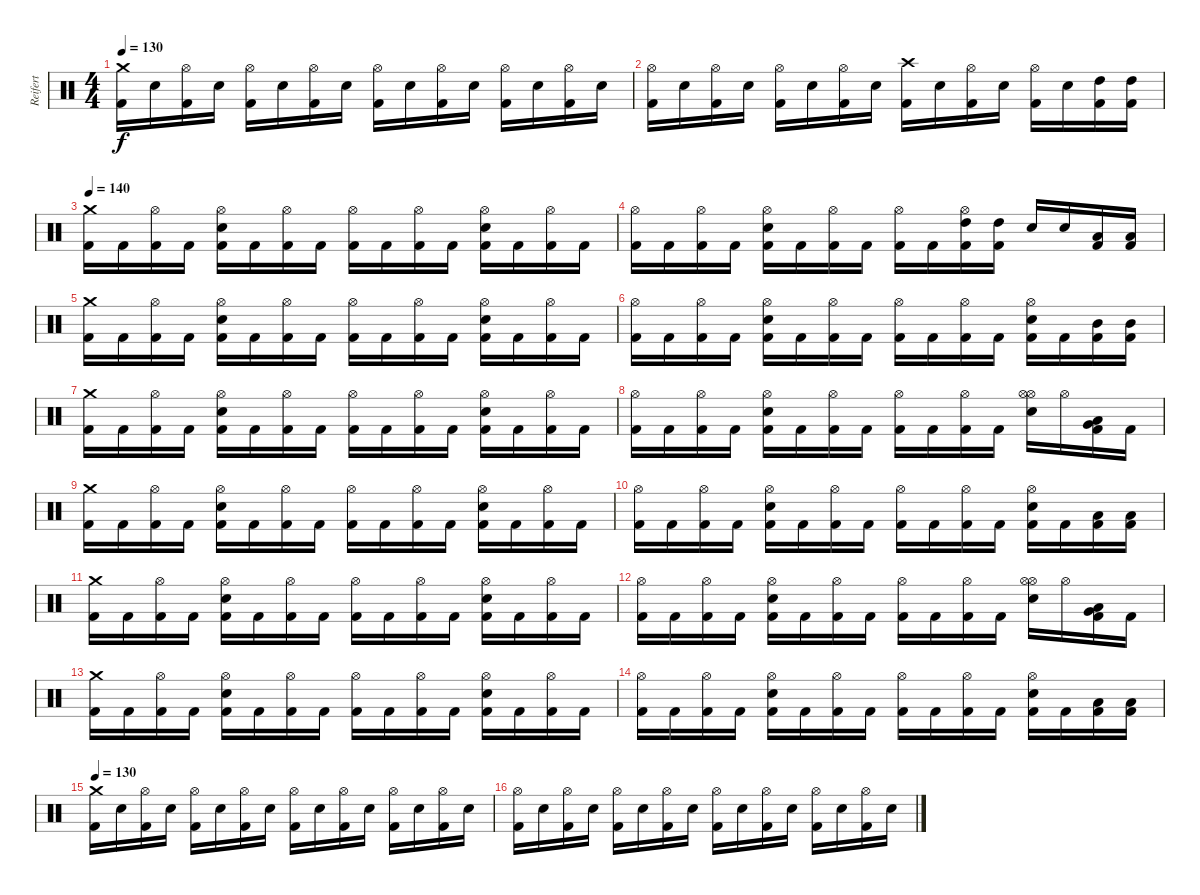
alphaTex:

\track ("Reifert" "Reifert") {instrument percussion}
\staff {score}
\articulation defaults
\ts (4 4)
\tempo 130
\clef neutral
\ks c
("Crash medium (hit)" "Kick (hit) 2").16{dy f} "Electric Snare (hit)".16 ("Hi-Hat (open)" "Kick (hit) 2").16 "Electric Snare (hit)".16 ("Hi-Hat (open)" "Kick (hit) 2").16 "Electric Snare (hit)".16 ("Hi-Hat (open)" "Kick (hit) 2").16 "Electric Snare (hit)".16 ("Hi-Hat (open)" "Kick (hit) 2").16 "Electric Snare (hit)".16 ("Hi-Hat (open)" "Kick (hit) 2").16 "Electric Snare (hit)".16 ("Hi-Hat (open)" "Kick (hit) 2").16 "Electric Snare (hit)".16 ("Hi-Hat (open)" "Kick (hit) 2").16 "Electric Snare (hit)".16 |
("Hi-Hat (open)" "Kick (hit) 2").16 "Electric Snare (hit)".16 ("Hi-Hat (open)" "Kick (hit) 2").16 "Electric Snare (hit)".16 ("Hi-Hat (open)" "Kick (hit) 2").16 "Electric Snare (hit)".16 ("Hi-Hat (open)" "Kick (hit) 2").16 "Electric Snare (hit)".16 ("Crash high (hit)" "Kick (hit) 2").16 "Electric Snare (hit)".16 ("Hi-Hat (open)" "Kick (hit) 2").16 "Electric Snare (hit)".16 ("Hi-Hat (open)" "Kick (hit) 2").16 "Electric Snare (hit)".16 ("High Tom (hit)" "Kick (hit) 2").16 ("High Tom (hit)" "Kick (hit) 2").16 |
\tempo 140
("Crash medium (hit)" "Kick (hit) 2").16 "Kick (hit) 2".16 ("Hi-Hat (open)" "Kick (hit) 2").16 "Kick (hit) 2".16 ("Hi-Hat (open)" "Electric Snare (hit)" "Kick (hit) 2").16 "Kick (hit) 2".16 ("Hi-Hat (open)" "Kick (hit) 2").16 "Kick (hit) 2".16 ("Hi-Hat (open)" "Kick (hit) 2").16 "Kick (hit) 2".16 ("Hi-Hat (open)" "Kick (hit) 2").16 "Kick (hit) 2".16 ("Hi-Hat (open)" "Electric Snare (hit)" "Kick (hit) 2").16 "Kick (hit) 2".16 ("Hi-Hat (open)" "Kick (hit) 2").16 "Kick (hit) 2".16 |
("Hi-Hat (open)" "Kick (hit) 2").16 "Kick (hit) 2".16 ("Hi-Hat (open)" "Kick (hit) 2").16 "Kick (hit) 2".16 ("Hi-Hat (open)" "Electric Snare (hit)" "Kick (hit) 2").16 "Kick (hit) 2".16 ("Hi-Hat (open)" "Kick (hit) 2").16 "Kick (hit) 2".16 ("Hi-Hat (open)" "Kick (hit) 2").16 "Kick (hit) 2".16 ("Hi-Hat (open)" "High Tom (hit)" "Kick (hit) 2").16 ("High Tom (hit)" "Kick (hit) 2").16 "Electric Snare (hit)".16 "Electric Snare (hit)".16 ("Low Tom (hit)" "Kick (hit) 2").16 ("Low Tom (hit)" "Kick (hit) 2").16 |
("Crash medium (hit)" "Kick (hit) 2").16 "Kick (hit) 2".16 ("Hi-Hat (open)" "Kick (hit) 2").16 "Kick (hit) 2".16 ("Hi-Hat (open)" "Electric Snare (hit)" "Kick (hit) 2").16 "Kick (hit) 2".16 ("Hi-Hat (open)" "Kick (hit) 2").16 "Kick (hit) 2".16 ("Hi-Hat (open)" "Kick (hit) 2").16 "Kick (hit) 2".16 ("Hi-Hat (open)" "Kick (hit) 2").16 "Kick (hit) 2".16 ("Hi-Hat (open)" "Electric Snare (hit)" "Kick (hit) 2").16 "Kick (hit) 2".16 ("Hi-Hat (open)" "Kick (hit) 2").16 "Kick (hit) 2".16 |
("Hi-Hat (open)" "Kick (hit) 2").16 "Kick (hit) 2".16 ("Hi-Hat (open)" "Kick (hit) 2").16 "Kick (hit) 2".16 ("Hi-Hat (open)" "Electric Snare (hit)" "Kick (hit) 2").16 "Kick (hit) 2".16 ("Hi-Hat (open)" "Kick (hit) 2").16 "Kick (hit) 2".16 ("Hi-Hat (open)" "Kick (hit) 2").16 "Kick (hit) 2".16 ("Hi-Hat (open)" "Kick (hit) 2").16 "Kick (hit) 2".16 ("Hi-Hat (open)" "Electric Snare (hit)" "Kick (hit) 2").16 "Kick (hit) 2".16 ("Mid Tom (hit)" "Kick (hit) 2").16 ("Mid Tom (hit)" "Kick (hit) 2").16 |
("Crash medium (hit)" "Kick (hit) 2").16 "Kick (hit) 2".16 ("Hi-Hat (open)" "Kick (hit) 2").16 "Kick (hit) 2".16 ("Hi-Hat (open)" "Electric Snare (hit)" "Kick (hit) 2").16 "Kick (hit) 2".16 ("Hi-Hat (open)" "Kick (hit) 2").16 "Kick (hit) 2".16 ("Hi-Hat (open)" "Kick (hit) 2").16 "Kick (hit) 2".16 ("Hi-Hat (open)" "Kick (hit) 2").16 "Kick (hit) 2".16 ("Hi-Hat (open)" "Electric Snare (hit)" "Kick (hit) 2").16 "Kick (hit) 2".16 ("Hi-Hat (open)" "Kick (hit) 2").16 "Kick (hit) 2".16 |
("Hi-Hat (open)" "Kick (hit) 2").16 "Kick (hit) 2".16 ("Hi-Hat (open)" "Kick (hit) 2").16 "Kick (hit) 2".16 ("Hi-Hat (open)" "Electric Snare (hit)" "Kick (hit) 2").16 "Kick (hit) 2".16 ("Hi-Hat (open)" "Kick (hit) 2").16 "Kick (hit) 2".16 ("Hi-Hat (open)" "Kick (hit) 2").16 "Kick (hit) 2".16 ("Hi-Hat (open)" "Kick (hit) 2").16 "Kick (hit) 2".16 ("Hi-Hat (open)" "Electric Snare (hit)" "Hi-Hat (open)").16 "Hi-Hat (open)".16 ("Low Tom (hit)" "Very Low Tom (hit)" "Kick (hit) 2").16 "Kick (hit) 2".16 |
("Crash medium (hit)" "Kick (hit) 2").16 "Kick (hit) 2".16 ("Hi-Hat (open)" "Kick (hit) 2").16 "Kick (hit) 2".16 ("Hi-Hat (open)" "Electric Snare (hit)" "Kick (hit) 2").16 "Kick (hit) 2".16 ("Hi-Hat (open)" "Kick (hit) 2").16 "Kick (hit) 2".16 ("Hi-Hat (open)" "Kick (hit) 2").16 "Kick (hit) 2".16 ("Hi-Hat (open)" "Kick (hit) 2").16 "Kick (hit) 2".16 ("Hi-Hat (open)" "Electric Snare (hit)" "Kick (hit) 2").16 "Kick (hit) 2".16 ("Hi-Hat (open)" "Kick (hit) 2").16 "Kick (hit) 2".16 |
("Hi-Hat (open)" "Kick (hit) 2").16 "Kick (hit) 2".16 ("Hi-Hat (open)" "Kick (hit) 2").16 "Kick (hit) 2".16 ("Hi-Hat (open)" "Electric Snare (hit)" "Kick (hit) 2").16 "Kick (hit) 2".16 ("Hi-Hat (open)" "Kick (hit) 2").16 "Kick (hit) 2".16 ("Hi-Hat (open)" "Kick (hit) 2").16 "Kick (hit) 2".16 ("Hi-Hat (open)" "Kick (hit) 2").16 "Kick (hit) 2".16 ("Hi-Hat (open)" "Electric Snare (hit)" "Kick (hit) 2").16 "Kick (hit) 2".16 ("Low Tom (hit)" "Kick (hit) 2").16 ("Low Tom (hit)" "Kick (hit) 2").16 |
("Crash medium (hit)" "Kick (hit) 2").16 "Kick (hit) 2".16 ("Hi-Hat (open)" "Kick (hit) 2").16 "Kick (hit) 2".16 ("Hi-Hat (open)" "Electric Snare (hit)" "Kick (hit) 2").16 "Kick (hit) 2".16 ("Hi-Hat (open)" "Kick (hit) 2").16 "Kick (hit) 2".16 ("Hi-Hat (open)" "Kick (hit) 2").16 "Kick (hit) 2".16 ("Hi-Hat (open)" "Kick (hit) 2").16 "Kick (hit) 2".16 ("Hi-Hat (open)" "Electric Snare (hit)" "Kick (hit) 2").16 "Kick (hit) 2".16 ("Hi-Hat (open)" "Kick (hit) 2").16 "Kick (hit) 2".16 |
("Hi-Hat (open)" "Kick (hit) 2").16 "Kick (hit) 2".16 ("Hi-Hat (open)" "Kick (hit) 2").16 "Kick (hit) 2".16 ("Hi-Hat (open)" "Electric Snare (hit)" "Kick (hit) 2").16 "Kick (hit) 2".16 ("Hi-Hat (open)" "Kick (hit) 2").16 "Kick (hit) 2".16 ("Hi-Hat (open)" "Kick (hit) 2").16 "Kick (hit) 2".16 ("Hi-Hat (open)" "Kick (hit) 2").16 "Kick (hit) 2".16 ("Hi-Hat (open)" "Electric Snare (hit)" "Hi-Hat (open)").16 "Hi-Hat (open)".16 ("Low Tom (hit)" "Very Low Tom (hit)" "Kick (hit) 2").16 "Kick (hit) 2".16 |
("Crash medium (hit)" "Kick (hit) 2").16 "Kick (hit) 2".16 ("Hi-Hat (open)" "Kick (hit) 2").16 "Kick (hit) 2".16 ("Hi-Hat (open)" "Electric Snare (hit)" "Kick (hit) 2").16 "Kick (hit) 2".16 ("Hi-Hat (open)" "Kick (hit) 2").16 "Kick (hit) 2".16 ("Hi-Hat (open)" "Kick (hit) 2").16 "Kick (hit) 2".16 ("Hi-Hat (open)" "Kick (hit) 2").16 "Kick (hit) 2".16 ("Hi-Hat (open)" "Electric Snare (hit)" "Kick (hit) 2").16 "Kick (hit) 2".16 ("Hi-Hat (open)" "Kick (hit) 2").16 "Kick (hit) 2".16 |
("Hi-Hat (open)" "Kick (hit) 2").16 "Kick (hit) 2".16 ("Hi-Hat (open)" "Kick (hit) 2").16 "Kick (hit) 2".16 ("Hi-Hat (open)" "Electric Snare (hit)" "Kick (hit) 2").16 "Kick (hit) 2".16 ("Hi-Hat (open)" "Kick (hit) 2").16 "Kick (hit) 2".16 ("Hi-Hat (open)" "Kick (hit) 2").16 "Kick (hit) 2".16 ("Hi-Hat (open)" "Kick (hit) 2").16 "Kick (hit) 2".16 ("Hi-Hat (open)" "Electric Snare (hit)" "Kick (hit) 2").16 "Kick (hit) 2".16 ("Low Tom (hit)" "Kick (hit) 2").16 ("Low Tom (hit)" "Kick (hit) 2").16 |
\tempo 130
("Crash medium (hit)" "Kick (hit) 2").16 "Electric Snare (hit)".16 ("Hi-Hat (open)" "Kick (hit) 2").16 "Electric Snare (hit)".16 ("Hi-Hat (open)" "Kick (hit) 2").16 "Electric Snare (hit)".16 ("Hi-Hat (open)" "Kick (hit) 2").16 "Electric Snare (hit)".16 ("Hi-Hat (open)" "Kick (hit) 2").16 "Electric Snare (hit)".16 ("Hi-Hat (open)" "Kick (hit) 2").16 "Electric Snare (hit)".16 ("Hi-Hat (open)" "Kick (hit) 2").16 "Electric Snare (hit)".16 ("Hi-Hat (open)" "Kick (hit) 2").16 "Electric Snare (hit)".16 |
("Hi-Hat (open)" "Kick (hit) 2").16 "Electric Snare (hit)".16 ("Hi-Hat (open)" "Kick (hit) 2").16 "Electric Snare (hit)".16 ("Hi-Hat (open)" "Kick (hit) 2").16 "Electric Snare (hit)".16 ("Hi-Hat (open)" "Kick (hit) 2").16 "Electric Snare (hit)".16 ("Hi-Hat (open)" "Kick (hit) 2").16 "Electric Snare (hit)".16 ("Hi-Hat (open)" "Kick (hit) 2").16 "Electric Snare (hit)".16 ("Hi-Hat (open)" "Kick (hit) 2").16 "Electric Snare (hit)".16 ("Hi-Hat (open)" "Kick (hit) 2").16 "Electric Snare (hit)".16
